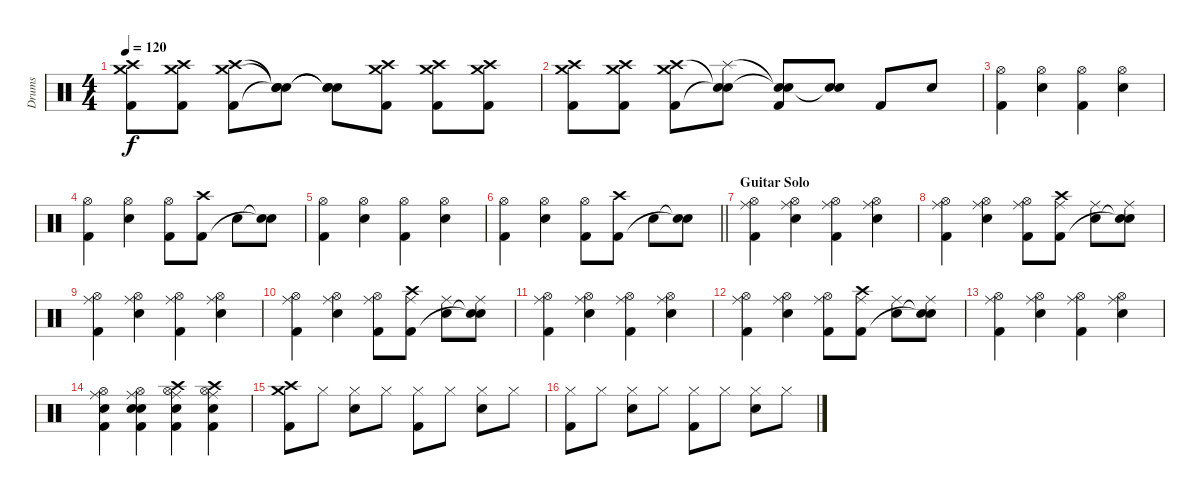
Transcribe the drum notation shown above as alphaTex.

\track ("Drums" "Drums") {instrument percussion}
\staff {score}
\articulation defaults
\ts (4 4)
\tempo 120
\clef neutral
\ks c
("Crash high (hit)" "Crash medium (hit)" "Kick (hit) 2").8{dy f} ("Crash high (hit)" "Crash medium (hit)" "Kick (hit) 2").8 ("Crash high (hit)" "Crash medium (hit)" "Kick (hit) 2").8 ("Snare (hit)"{t} "Snare (hit)"{t} "Snare (hit)"{t}).8 ("Snare (hit)"{t} "Snare (hit)"{t} "Snare (hit)"{t}).8 ("Crash high (hit)" "Crash medium (hit)" "Kick (hit) 2").8 ("Crash high (hit)" "Crash medium (hit)" "Kick (hit) 2").8 ("Crash high (hit)" "Crash medium (hit)" "Kick (hit) 2").8 |
("Crash high (hit)" "Crash medium (hit)" "Kick (hit) 2").8 ("Crash high (hit)" "Crash medium (hit)" "Kick (hit) 2").8 ("Crash high (hit)" "Crash medium (hit)" "Kick (hit) 2").8 ("Snare (hit)"{t} "Splash (hit)" "Snare (hit)"{t}).8 ("Snare (hit)"{t} "Snare (hit)"{t} "Kick (hit) 2").8 ("Snare (hit)"{t} "Electric Snare (hit)").8 "Kick (hit) 2".8 "Electric Snare (hit)".8 |
("Hi-Hat (open)" "Kick (hit) 2").4 ("Hi-Hat (open)" "Electric Snare (hit)").4 ("Hi-Hat (open)" "Kick (hit) 2").4 ("Hi-Hat (open)" "Electric Snare (hit)").4 |
("Hi-Hat (open)" "Kick (hit) 2").4 ("Hi-Hat (open)" "Electric Snare (hit)").4 ("Hi-Hat (open)" "Kick (hit) 2").8 ("Crash high (hit)" "Kick (hit) 2").8 "Electric Snare (hit)".8 ("Snare (hit)"{t} "Snare (hit)"{t}).8 |
("Hi-Hat (open)" "Kick (hit) 2").4 ("Hi-Hat (open)" "Electric Snare (hit)").4 ("Hi-Hat (open)" "Kick (hit) 2").4 ("Hi-Hat (open)" "Electric Snare (hit)").4 |
\barLineRight lightlight
("Hi-Hat (open)" "Kick (hit) 2").4 ("Hi-Hat (open)" "Electric Snare (hit)").4 ("Hi-Hat (open)" "Kick (hit) 2").8 ("Crash high (hit)" "Kick (hit) 2").8 "Electric Snare (hit)".8 ("Snare (hit)"{t} "Snare (hit)"{t}).8 |
\section ("" "Guitar Solo")
("Ride (middle)" "Hi-Hat (open)" "Kick (hit) 2").4 ("Ride (middle)" "Hi-Hat (open)" "Electric Snare (hit)").4 ("Ride (middle)" "Hi-Hat (open)" "Kick (hit) 2").4 ("Ride (middle)" "Hi-Hat (open)" "Electric Snare (hit)").4 |
("Ride (middle)" "Hi-Hat (open)" "Kick (hit) 2").4 ("Ride (middle)" "Hi-Hat (open)" "Electric Snare (hit)").4 ("Ride (middle)" "Hi-Hat (open)" "Kick (hit) 2").8 ("Ride (middle)" "Crash high (hit)" "Kick (hit) 2").8 ("Ride (middle)" "Electric Snare (hit)").8 ("Ride (middle)" "Snare (hit)"{t} "Snare (hit)"{t}).8 |
("Ride (middle)" "Hi-Hat (open)" "Kick (hit) 2").4 ("Ride (middle)" "Hi-Hat (open)" "Electric Snare (hit)").4 ("Ride (middle)" "Hi-Hat (open)" "Kick (hit) 2").4 ("Ride (middle)" "Hi-Hat (open)" "Electric Snare (hit)").4 |
("Ride (middle)" "Hi-Hat (open)" "Kick (hit) 2").4 ("Ride (middle)" "Hi-Hat (open)" "Electric Snare (hit)").4 ("Ride (middle)" "Hi-Hat (open)" "Kick (hit) 2").8 ("Ride (middle)" "Crash high (hit)" "Kick (hit) 2").8 ("Ride (middle)" "Electric Snare (hit)").8 ("Ride (middle)" "Snare (hit)"{t} "Snare (hit)"{t}).8 |
("Ride (middle)" "Hi-Hat (open)" "Kick (hit) 2").4 ("Ride (middle)" "Hi-Hat (open)" "Electric Snare (hit)").4 ("Ride (middle)" "Hi-Hat (open)" "Kick (hit) 2").4 ("Ride (middle)" "Hi-Hat (open)" "Electric Snare (hit)").4 |
("Ride (middle)" "Hi-Hat (open)" "Kick (hit) 2").4 ("Ride (middle)" "Hi-Hat (open)" "Electric Snare (hit)").4 ("Ride (middle)" "Hi-Hat (open)" "Kick (hit) 2").8 ("Ride (middle)" "Crash high (hit)" "Kick (hit) 2").8 ("Ride (middle)" "Electric Snare (hit)").8 ("Ride (middle)" "Snare (hit)"{t} "Snare (hit)"{t}).8 |
("Ride (middle)" "Hi-Hat (open)" "Kick (hit) 2").4 ("Ride (middle)" "Hi-Hat (open)" "Electric Snare (hit)").4 ("Ride (middle)" "Hi-Hat (open)" "Kick (hit) 2").4 ("Ride (middle)" "Hi-Hat (open)" "Electric Snare (hit)").4 |
("Ride (middle)" "Snare (hit)" "Hi-Hat (open)" "Kick (hit) 2").4 ("Ride (middle)" "Snare (hit)" "Hi-Hat (open)" "Electric Snare (hit)" "Kick (hit) 2").4 ("Ride (middle)" "Crash high (hit)" "Hi-Hat (open)" "Electric Snare (hit)" "Kick (hit) 2").4 ("Ride (middle)" "Crash high (hit)" "Hi-Hat (open)" "Electric Snare (hit)" "Kick (hit) 2").4 |
("Crash high (hit)" "Crash medium (hit)" "Kick (hit) 2").8 "Hi-Hat (closed)".8 ("Hi-Hat (closed)" "Snare (hit) 2").8 "Hi-Hat (closed)".8 ("Hi-Hat (closed)" "Kick (hit) 2").8 "Hi-Hat (closed)".8 ("Hi-Hat (closed)" "Snare (hit) 2").8 "Hi-Hat (closed)".8 |
("Hi-Hat (closed)" "Kick (hit) 2").8 "Hi-Hat (closed)".8 ("Hi-Hat (closed)" "Snare (hit) 2").8 "Hi-Hat (closed)".8 ("Hi-Hat (closed)" "Kick (hit) 2").8 "Hi-Hat (closed)".8 ("Hi-Hat (closed)" "Snare (hit) 2").8 "Hi-Hat (closed)".8
